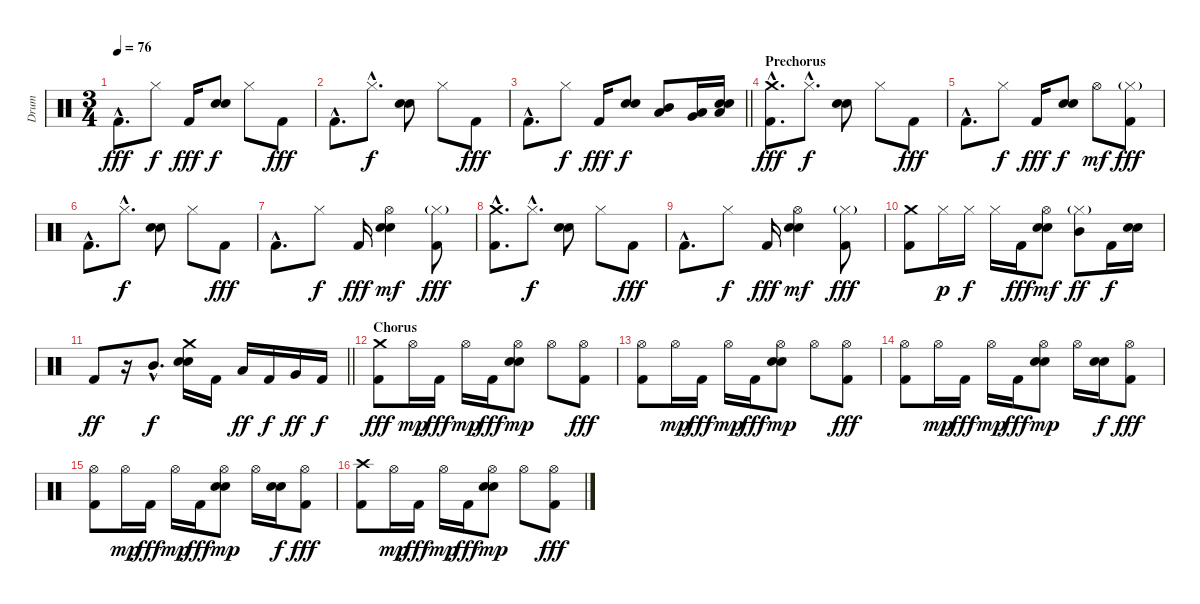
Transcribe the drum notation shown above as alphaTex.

\track ("Drum" "Drum") {instrument percussion}
\staff {score}
\articulation defaults
\ts (3 4)
\tempo 76
\clef neutral
\ks c "Kick (hit) 2"{hac}.8{d dy fff} "Hi-Hat (closed)".8{dy f} "Kick (hit) 2".16{dy fff}
("Electric Snare (hit)" "Snare (hit) 2").8{dy f} "Hi-Hat (closed)".8 "Kick (hit) 2".8{dy fff} |
"Kick (hit) 2"{hac}.8{d} "Hi-Hat (closed)"{hac}.8{d dy f} ("Electric Snare (hit)" "Snare (hit) 2").8 "Hi-Hat (closed)".8 "Kick (hit) 2".8{dy fff} |
\barLineRight lightlight "Kick (hit) 2"{hac}.8{d} "Hi-Hat (closed)".8{dy f} "Kick (hit) 2".16{dy fff}
("Electric Snare (hit)" "Snare (hit) 2").8{dy f} ("Low Tom (hit)" "Mid Tom (hit)").8 ("Very Low Tom (hit)" "Low Tom (hit)").16 ("Low Floor Tom (hit)" "Snare (hit) 2" "Electric Snare (hit)").16 |
\section ("" "Prechorus")
("Crash medium (hit)"{hac} "Kick (hit) 2"{hac}).8{d dy fff} "Hi-Hat (closed)"{hac}.8{d dy f} ("Electric Snare (hit)" "Snare (hit) 2").8 "Hi-Hat (closed)".8 "Kick (hit) 2".8{dy fff} |
"Kick (hit) 2"{hac}.8{d} "Hi-Hat (closed)".8{dy f} "Kick (hit) 2".16{dy fff} ("Electric Snare (hit)" "Snare (hit) 2").8{dy f} "Hi-Hat (open)".8{dy mf} ("Hi-Hat (closed)"{g} "Kick (hit) 2").8{dy fff} |
"Kick (hit) 2"{hac}.8{d} "Hi-Hat (closed)"{hac}.8{d dy f} ("Electric Snare (hit)" "Snare (hit) 2").8 "Hi-Hat (closed)".8 "Kick (hit) 2".8{dy fff} |
"Kick (hit) 2"{hac}.8{d} "Hi-Hat (closed)".8{dy f} "Kick (hit) 2".16{dy fff} ("Hi-Hat (open)" "Electric Snare (hit)" "Snare (hit) 2").4{dy mf} ("Hi-Hat (closed)"{g} "Kick (hit) 2").8{dy fff} |
("Crash medium (hit)"{hac} "Kick (hit) 2"{hac}).8{d} "Hi-Hat (closed)"{hac}.8{d dy f} ("Electric Snare (hit)" "Snare (hit) 2").8 "Hi-Hat (closed)".8 "Kick (hit) 2".8{dy fff} |
"Kick (hit) 2"{hac}.8{d} "Hi-Hat (closed)".8{dy f} "Kick (hit) 2".16{dy fff} ("Hi-Hat (open)" "Electric Snare (hit)" "Snare (hit) 2").4{dy mf} ("Hi-Hat (closed)"{g} "Kick (hit) 2").8{dy fff} |
("Crash medium (hit)" "Kick (hit) 2").8 "Hi-Hat (closed)".16{dy p} "Hi-Hat (closed)".16{dy f} "Hi-Hat (closed)".16 "Kick (hit) 2".16{dy fff} ("Hi-Hat (open)" "Electric Snare (hit)" "Snare (hit) 2").8{dy mf} ("Hi-Hat (closed)"{g} "Mid Tom (hit)").8{dy ff} "Kick (hit) 2".16{dy f} ("Electric Snare (hit)" "Snare (hit) 2").16 |
\barLineRight lightlight "Kick (hit) 2".8{dy ff}
r.16 "Mid Tom (hit)"{hac}.8{d dy f} ("Crash medium (hit)" "Electric Snare (hit)" "Snare (hit) 2").16 "Kick (hit) 2".16 "Low Tom (hit)".16{dy ff} "Kick (hit) 2".16{dy f} "Very Low Tom (hit)".16{dy ff} "Kick (hit) 2".16{dy f} |
\section ("" "Chorus")
("Crash medium (hit)" "Kick (hit) 2").8{dy fff} "Hi-Hat (open)".16{dy mp} "Kick (hit) 2".16{dy fff} "Hi-Hat (open)".16{dy mp} "Kick (hit) 2".16{dy fff} ("Hi-Hat (open)" "Snare (hit) 2" "Electric Snare (hit)").8{dy mp} "Hi-Hat (open)".8 ("Hi-Hat (open)" "Kick (hit) 2").8{dy fff} |
("Hi-Hat (open)" "Kick (hit) 2").8 "Hi-Hat (open)".16{dy mp} "Kick (hit) 2".16{dy fff} "Hi-Hat (open)".16{dy mp} "Kick (hit) 2".16{dy fff} ("Hi-Hat (open)" "Snare (hit) 2" "Electric Snare (hit)").8{dy mp} "Hi-Hat (open)".8 ("Hi-Hat (open)" "Kick (hit) 2").8{dy fff} |
("Hi-Hat (open)" "Kick (hit) 2").8 "Hi-Hat (open)".16{dy mp} "Kick (hit) 2".16{dy fff} "Hi-Hat (open)".16{dy mp} "Kick (hit) 2".16{dy fff} ("Hi-Hat (open)" "Snare (hit) 2" "Electric Snare (hit)").8{dy mp} "Hi-Hat (open)".16 ("Snare (hit) 2" "Electric Snare (hit)").16{dy f} ("Hi-Hat (open)" "Kick (hit) 2").8{dy fff} |
("Hi-Hat (open)" "Kick (hit) 2").8 "Hi-Hat (open)".16{dy mp} "Kick (hit) 2".16{dy fff} "Hi-Hat (open)".16{dy mp} "Kick (hit) 2".16{dy fff} ("Hi-Hat (open)" "Snare (hit) 2" "Electric Snare (hit)").8{dy mp} "Hi-Hat (open)".16 ("Snare (hit) 2" "Electric Snare (hit)").16{dy f} ("Hi-Hat (open)" "Kick (hit) 2").8{dy fff} |
("Crash high (hit)" "Kick (hit) 2").8 "Hi-Hat (open)".16{dy mp} "Kick (hit) 2".16{dy fff} "Hi-Hat (open)".16{dy mp} "Kick (hit) 2".16{dy fff} ("Hi-Hat (open)" "Snare (hit) 2" "Electric Snare (hit)").8{dy mp} "Hi-Hat (open)".8 ("Hi-Hat (open)" "Kick (hit) 2").8{dy fff}
